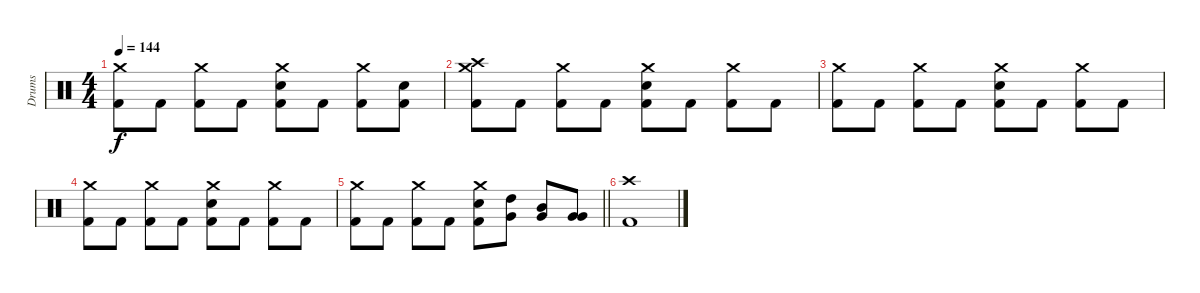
\track ("Drums" "Drums") {instrument percussion}
\staff {score}
\articulation defaults
\ts (4 4)
\tempo 144
\clef neutral
\ks c
("Crash medium (hit)" "Kick (hit) 2").8{dy f} "Kick (hit) 2".8 ("Crash medium (hit)" "Kick (hit) 2").8 "Kick (hit) 2".8 ("Crash medium (hit)" "Electric Snare (hit)" "Kick (hit) 2").8 "Kick (hit) 2".8 ("Crash medium (hit)" "Kick (hit) 2").8 ("Electric Snare (hit)" "Kick (hit) 2").8 |
("Crash high (hit)" "Crash medium (hit)" "Kick (hit) 2").8 "Kick (hit) 2".8 ("Crash medium (hit)" "Kick (hit) 2").8 "Kick (hit) 2".8 ("Crash medium (hit)" "Electric Snare (hit)" "Kick (hit) 2").8 "Kick (hit) 2".8 ("Crash medium (hit)" "Kick (hit) 2").8 "Kick (hit) 2".8 |
("Crash medium (hit)" "Kick (hit) 2").8 "Kick (hit) 2".8 ("Crash medium (hit)" "Kick (hit) 2").8 "Kick (hit) 2".8 ("Crash medium (hit)" "Electric Snare (hit)" "Kick (hit) 2").8 "Kick (hit) 2".8 ("Crash medium (hit)" "Kick (hit) 2").8 "Kick (hit) 2".8 |
("Crash medium (hit)" "Kick (hit) 2").8 "Kick (hit) 2".8 ("Crash medium (hit)" "Kick (hit) 2").8 "Kick (hit) 2".8 ("Crash medium (hit)" "Electric Snare (hit)" "Kick (hit) 2").8 "Kick (hit) 2".8 ("Crash medium (hit)" "Kick (hit) 2").8 "Kick (hit) 2".8 |
\barLineRight lightlight
("Crash medium (hit)" "Kick (hit) 2").8 "Kick (hit) 2".8 ("Crash medium (hit)" "Kick (hit) 2").8 "Kick (hit) 2".8 ("Crash medium (hit)" "Electric Snare (hit)" "Kick (hit) 2").8 ("High Tom (hit)" "Very Low Tom (hit)").8 ("Mid Tom (hit)" "Very Low Tom (hit)").8 ("Very Low Tom (hit)" "Very Low Tom (hit)").8 |
("Crash high (hit)" "Kick (hit) 2").1
